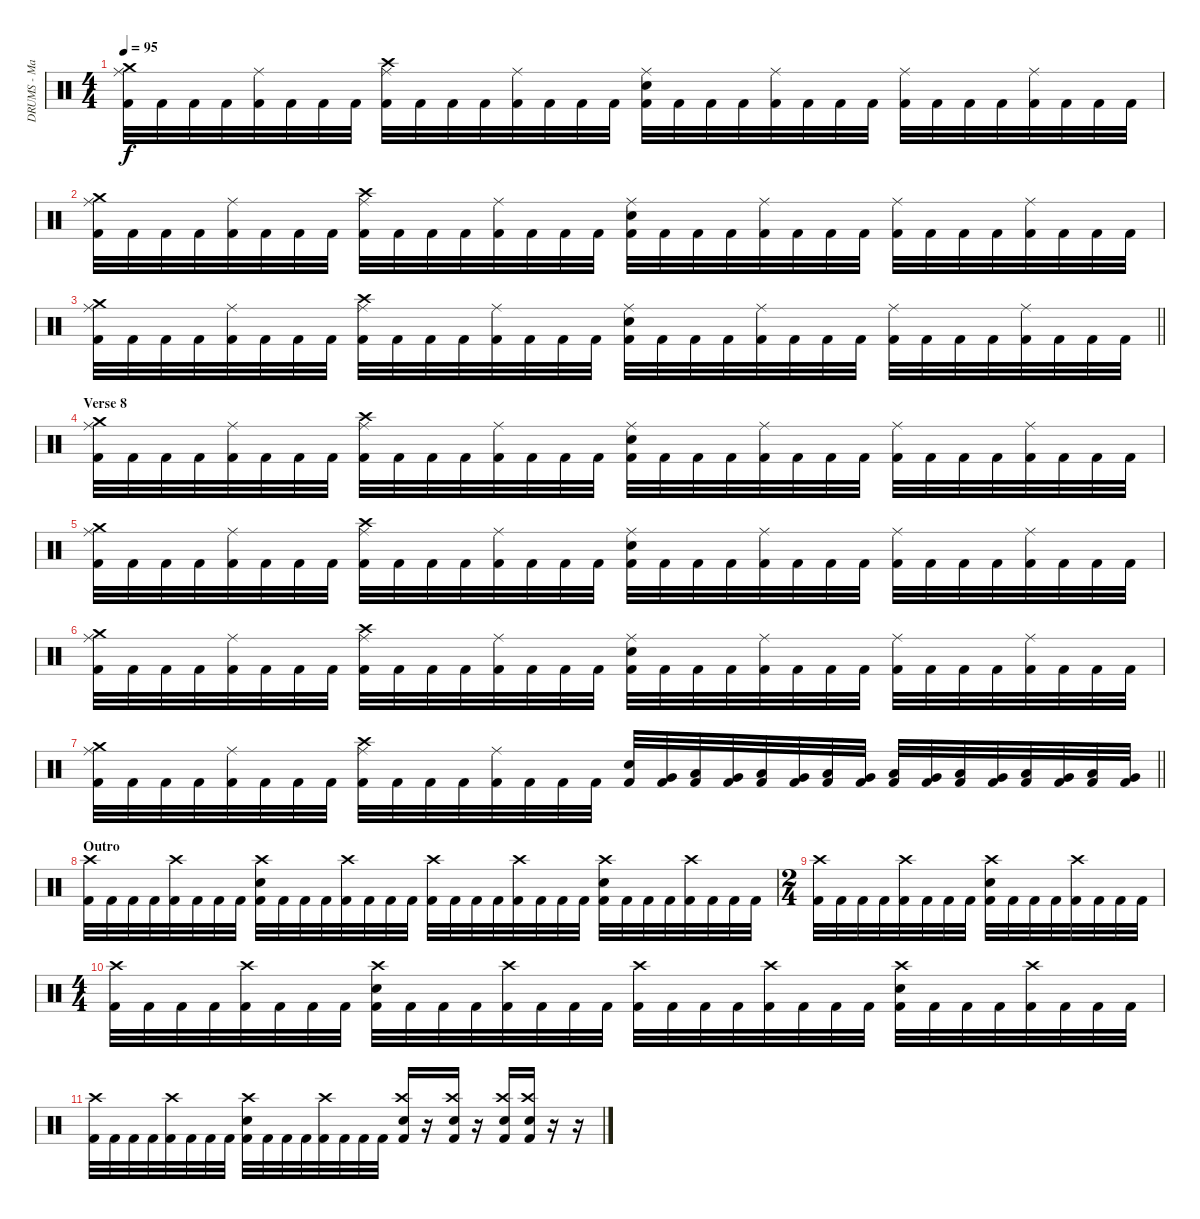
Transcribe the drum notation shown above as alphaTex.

\track ("DRUMS - Mario Duplantier" "DRUMS - Ma") {instrument percussion}
\staff {score}
\articulation defaults
\ts (4 4)
\tempo 95
\clef neutral
\ks c
("Ride (middle)" "Crash medium (hit)" "Kick (hit) 2").32{dy f} "Kick (hit) 2".32 "Kick (hit) 2".32 "Kick (hit) 2".32 ("Ride (middle)" "Kick (hit) 2").32 "Kick (hit) 2".32 "Kick (hit) 2".32 "Kick (hit) 2".32 ("Ride (middle)" "Crash high (hit)" "Kick (hit) 2").32 "Kick (hit) 2".32 "Kick (hit) 2".32 "Kick (hit) 2".32 ("Ride (middle)" "Kick (hit) 2").32 "Kick (hit) 2".32 "Kick (hit) 2".32 "Kick (hit) 2".32 ("Ride (middle)" "Electric Snare (hit)" "Kick (hit) 2").32 "Kick (hit) 2".32 "Kick (hit) 2".32 "Kick (hit) 2".32 ("Ride (middle)" "Kick (hit) 2").32 "Kick (hit) 2".32 "Kick (hit) 2".32 "Kick (hit) 2".32 ("Ride (middle)" "Kick (hit) 2").32 "Kick (hit) 2".32 "Kick (hit) 2".32 "Kick (hit) 2".32 ("Ride (middle)" "Kick (hit) 2").32 "Kick (hit) 2".32 "Kick (hit) 2".32 "Kick (hit) 2".32 |
("Ride (middle)" "Crash medium (hit)" "Kick (hit) 2").32 "Kick (hit) 2".32 "Kick (hit) 2".32 "Kick (hit) 2".32 ("Ride (middle)" "Kick (hit) 2").32 "Kick (hit) 2".32 "Kick (hit) 2".32 "Kick (hit) 2".32 ("Ride (middle)" "Crash high (hit)" "Kick (hit) 2").32 "Kick (hit) 2".32 "Kick (hit) 2".32 "Kick (hit) 2".32 ("Ride (middle)" "Kick (hit) 2").32 "Kick (hit) 2".32 "Kick (hit) 2".32 "Kick (hit) 2".32 ("Ride (middle)" "Electric Snare (hit)" "Kick (hit) 2").32 "Kick (hit) 2".32 "Kick (hit) 2".32 "Kick (hit) 2".32 ("Ride (middle)" "Kick (hit) 2").32 "Kick (hit) 2".32 "Kick (hit) 2".32 "Kick (hit) 2".32 ("Ride (middle)" "Kick (hit) 2").32 "Kick (hit) 2".32 "Kick (hit) 2".32 "Kick (hit) 2".32 ("Ride (middle)" "Kick (hit) 2").32 "Kick (hit) 2".32 "Kick (hit) 2".32 "Kick (hit) 2".32 |
\barLineRight lightlight
("Ride (middle)" "Crash medium (hit)" "Kick (hit) 2").32 "Kick (hit) 2".32 "Kick (hit) 2".32 "Kick (hit) 2".32 ("Ride (middle)" "Kick (hit) 2").32 "Kick (hit) 2".32 "Kick (hit) 2".32 "Kick (hit) 2".32 ("Ride (middle)" "Crash high (hit)" "Kick (hit) 2").32 "Kick (hit) 2".32 "Kick (hit) 2".32 "Kick (hit) 2".32 ("Ride (middle)" "Kick (hit) 2").32 "Kick (hit) 2".32 "Kick (hit) 2".32 "Kick (hit) 2".32 ("Ride (middle)" "Electric Snare (hit)" "Kick (hit) 2").32 "Kick (hit) 2".32 "Kick (hit) 2".32 "Kick (hit) 2".32 ("Ride (middle)" "Kick (hit) 2").32 "Kick (hit) 2".32 "Kick (hit) 2".32 "Kick (hit) 2".32 ("Ride (middle)" "Kick (hit) 2").32 "Kick (hit) 2".32 "Kick (hit) 2".32 "Kick (hit) 2".32 ("Ride (middle)" "Kick (hit) 2").32 "Kick (hit) 2".32 "Kick (hit) 2".32 "Kick (hit) 2".32 |
\section ("" "Verse 8")
("Ride (middle)" "Crash medium (hit)" "Kick (hit) 2").32 "Kick (hit) 2".32 "Kick (hit) 2".32 "Kick (hit) 2".32 ("Ride (middle)" "Kick (hit) 2").32 "Kick (hit) 2".32 "Kick (hit) 2".32 "Kick (hit) 2".32 ("Ride (middle)" "Crash high (hit)" "Kick (hit) 2").32 "Kick (hit) 2".32 "Kick (hit) 2".32 "Kick (hit) 2".32 ("Ride (middle)" "Kick (hit) 2").32 "Kick (hit) 2".32 "Kick (hit) 2".32 "Kick (hit) 2".32 ("Ride (middle)" "Electric Snare (hit)" "Kick (hit) 2").32 "Kick (hit) 2".32 "Kick (hit) 2".32 "Kick (hit) 2".32 ("Ride (middle)" "Kick (hit) 2").32 "Kick (hit) 2".32 "Kick (hit) 2".32 "Kick (hit) 2".32 ("Ride (middle)" "Kick (hit) 2").32 "Kick (hit) 2".32 "Kick (hit) 2".32 "Kick (hit) 2".32 ("Ride (middle)" "Kick (hit) 2").32 "Kick (hit) 2".32 "Kick (hit) 2".32 "Kick (hit) 2".32 |
("Ride (middle)" "Crash medium (hit)" "Kick (hit) 2").32 "Kick (hit) 2".32 "Kick (hit) 2".32 "Kick (hit) 2".32 ("Ride (middle)" "Kick (hit) 2").32 "Kick (hit) 2".32 "Kick (hit) 2".32 "Kick (hit) 2".32 ("Ride (middle)" "Crash high (hit)" "Kick (hit) 2").32 "Kick (hit) 2".32 "Kick (hit) 2".32 "Kick (hit) 2".32 ("Ride (middle)" "Kick (hit) 2").32 "Kick (hit) 2".32 "Kick (hit) 2".32 "Kick (hit) 2".32 ("Ride (middle)" "Electric Snare (hit)" "Kick (hit) 2").32 "Kick (hit) 2".32 "Kick (hit) 2".32 "Kick (hit) 2".32 ("Ride (middle)" "Kick (hit) 2").32 "Kick (hit) 2".32 "Kick (hit) 2".32 "Kick (hit) 2".32 ("Ride (middle)" "Kick (hit) 2").32 "Kick (hit) 2".32 "Kick (hit) 2".32 "Kick (hit) 2".32 ("Ride (middle)" "Kick (hit) 2").32 "Kick (hit) 2".32 "Kick (hit) 2".32 "Kick (hit) 2".32 |
("Ride (middle)" "Crash medium (hit)" "Kick (hit) 2").32 "Kick (hit) 2".32 "Kick (hit) 2".32 "Kick (hit) 2".32 ("Ride (middle)" "Kick (hit) 2").32 "Kick (hit) 2".32 "Kick (hit) 2".32 "Kick (hit) 2".32 ("Ride (middle)" "Crash high (hit)" "Kick (hit) 2").32 "Kick (hit) 2".32 "Kick (hit) 2".32 "Kick (hit) 2".32 ("Ride (middle)" "Kick (hit) 2").32 "Kick (hit) 2".32 "Kick (hit) 2".32 "Kick (hit) 2".32 ("Ride (middle)" "Electric Snare (hit)" "Kick (hit) 2").32 "Kick (hit) 2".32 "Kick (hit) 2".32 "Kick (hit) 2".32 ("Ride (middle)" "Kick (hit) 2").32 "Kick (hit) 2".32 "Kick (hit) 2".32 "Kick (hit) 2".32 ("Ride (middle)" "Kick (hit) 2").32 "Kick (hit) 2".32 "Kick (hit) 2".32 "Kick (hit) 2".32 ("Ride (middle)" "Kick (hit) 2").32 "Kick (hit) 2".32 "Kick (hit) 2".32 "Kick (hit) 2".32 |
\barLineRight lightlight
("Ride (middle)" "Crash medium (hit)" "Kick (hit) 2").32 "Kick (hit) 2".32 "Kick (hit) 2".32 "Kick (hit) 2".32 ("Ride (middle)" "Kick (hit) 2").32 "Kick (hit) 2".32 "Kick (hit) 2".32 "Kick (hit) 2".32 ("Ride (middle)" "Crash high (hit)" "Kick (hit) 2").32 "Kick (hit) 2".32 "Kick (hit) 2".32 "Kick (hit) 2".32 ("Ride (middle)" "Kick (hit) 2").32 "Kick (hit) 2".32 "Kick (hit) 2".32 "Kick (hit) 2".32 ("Electric Snare (hit)" "Kick (hit) 2").32 ("Very Low Tom (hit)" "Kick (hit) 2").32 ("Low Tom (hit)" "Kick (hit) 2").32 ("Very Low Tom (hit)" "Kick (hit) 2").32 ("Low Tom (hit)" "Kick (hit) 2").32 ("Very Low Tom (hit)" "Kick (hit) 2").32 ("Low Tom (hit)" "Kick (hit) 2").32 ("Very Low Tom (hit)" "Kick (hit) 2").32 ("Low Tom (hit)" "Kick (hit) 2").32 ("Very Low Tom (hit)" "Kick (hit) 2").32 ("Low Tom (hit)" "Kick (hit) 2").32 ("Very Low Tom (hit)" "Kick (hit) 2").32 ("Low Tom (hit)" "Kick (hit) 2").32 ("Very Low Tom (hit)" "Kick (hit) 2").32 ("Low Tom (hit)" "Kick (hit) 2").32 ("Very Low Tom (hit)" "Kick (hit) 2").32 |
\section ("" "Outro")
("Crash high (hit)" "Kick (hit) 2").32 "Kick (hit) 2".32 "Kick (hit) 2".32 "Kick (hit) 2".32 ("Crash high (hit)" "Kick (hit) 2").32 "Kick (hit) 2".32 "Kick (hit) 2".32 "Kick (hit) 2".32 ("Crash high (hit)" "Electric Snare (hit)" "Kick (hit) 2").32 "Kick (hit) 2".32 "Kick (hit) 2".32 "Kick (hit) 2".32 ("Crash high (hit)" "Kick (hit) 2").32 "Kick (hit) 2".32 "Kick (hit) 2".32 "Kick (hit) 2".32 ("Crash high (hit)" "Kick (hit) 2").32 "Kick (hit) 2".32 "Kick (hit) 2".32 "Kick (hit) 2".32 ("Crash high (hit)" "Kick (hit) 2").32 "Kick (hit) 2".32 "Kick (hit) 2".32 "Kick (hit) 2".32 ("Crash high (hit)" "Electric Snare (hit)" "Kick (hit) 2").32 "Kick (hit) 2".32 "Kick (hit) 2".32 "Kick (hit) 2".32 ("Crash high (hit)" "Kick (hit) 2").32 "Kick (hit) 2".32 "Kick (hit) 2".32 "Kick (hit) 2".32 |
\ts (2 4)
("Crash high (hit)" "Kick (hit) 2").32 "Kick (hit) 2".32 "Kick (hit) 2".32 "Kick (hit) 2".32 ("Crash high (hit)" "Kick (hit) 2").32 "Kick (hit) 2".32 "Kick (hit) 2".32 "Kick (hit) 2".32 ("Crash high (hit)" "Electric Snare (hit)" "Kick (hit) 2").32 "Kick (hit) 2".32 "Kick (hit) 2".32 "Kick (hit) 2".32 ("Crash high (hit)" "Kick (hit) 2").32 "Kick (hit) 2".32 "Kick (hit) 2".32 "Kick (hit) 2".32 |
\ts (4 4)
("Crash high (hit)" "Kick (hit) 2").32 "Kick (hit) 2".32 "Kick (hit) 2".32 "Kick (hit) 2".32 ("Crash high (hit)" "Kick (hit) 2").32 "Kick (hit) 2".32 "Kick (hit) 2".32 "Kick (hit) 2".32 ("Crash high (hit)" "Electric Snare (hit)" "Kick (hit) 2").32 "Kick (hit) 2".32 "Kick (hit) 2".32 "Kick (hit) 2".32 ("Crash high (hit)" "Kick (hit) 2").32 "Kick (hit) 2".32 "Kick (hit) 2".32 "Kick (hit) 2".32 ("Crash high (hit)" "Kick (hit) 2").32 "Kick (hit) 2".32 "Kick (hit) 2".32 "Kick (hit) 2".32 ("Crash high (hit)" "Kick (hit) 2").32 "Kick (hit) 2".32 "Kick (hit) 2".32 "Kick (hit) 2".32 ("Crash high (hit)" "Electric Snare (hit)" "Kick (hit) 2").32 "Kick (hit) 2".32 "Kick (hit) 2".32 "Kick (hit) 2".32 ("Crash high (hit)" "Kick (hit) 2").32 "Kick (hit) 2".32 "Kick (hit) 2".32 "Kick (hit) 2".32 |
("Crash high (hit)" "Kick (hit) 2").32 "Kick (hit) 2".32 "Kick (hit) 2".32 "Kick (hit) 2".32 ("Crash high (hit)" "Kick (hit) 2").32 "Kick (hit) 2".32 "Kick (hit) 2".32 "Kick (hit) 2".32 ("Crash high (hit)" "Electric Snare (hit)" "Kick (hit) 2").32 "Kick (hit) 2".32 "Kick (hit) 2".32 "Kick (hit) 2".32 ("Crash high (hit)" "Kick (hit) 2").32 "Kick (hit) 2".32 "Kick (hit) 2".32 "Kick (hit) 2".32 ("Crash high (hit)" "Electric Snare (hit)" "Kick (hit) 2").16 r.16 ("Crash high (hit)" "Electric Snare (hit)" "Kick (hit) 2").16 r.16 ("Crash high (hit)" "Electric Snare (hit)" "Kick (hit) 2").16 ("Crash high (hit)" "Electric Snare (hit)" "Kick (hit) 2").16 r.16 r.16
